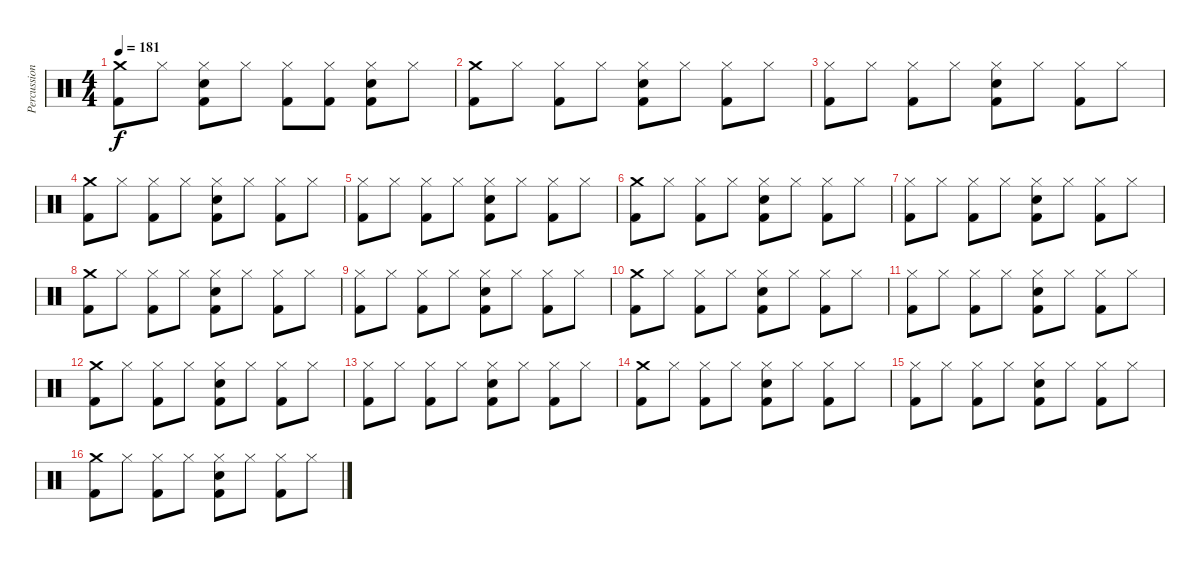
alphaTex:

\track ("Percussion" "Percussion") {instrument percussion}
\staff {score}
\articulation defaults
\ts (4 4)
\tempo 181
\clef neutral
\ks c
("Crash medium (hit)" "Kick (hit) 2").8{dy f} "Hi-Hat (closed)".8 ("Hi-Hat (closed)" "Electric Snare (hit)" "Kick (hit) 2").8 "Hi-Hat (closed)".8 ("Hi-Hat (closed)" "Kick (hit) 2").8 ("Hi-Hat (closed)" "Kick (hit) 2").8 ("Hi-Hat (closed)" "Electric Snare (hit)" "Kick (hit) 2").8 "Hi-Hat (closed)".8 |
("Crash medium (hit)" "Kick (hit) 2").8 "Hi-Hat (closed)".8 ("Hi-Hat (closed)" "Kick (hit) 2").8 "Hi-Hat (closed)".8 ("Hi-Hat (closed)" "Electric Snare (hit)" "Kick (hit) 2").8 "Hi-Hat (closed)".8 ("Hi-Hat (closed)" "Kick (hit) 2").8 "Hi-Hat (closed)".8 |
("Hi-Hat (closed)" "Kick (hit) 2").8 "Hi-Hat (closed)".8 ("Hi-Hat (closed)" "Kick (hit) 2").8 "Hi-Hat (closed)".8 ("Hi-Hat (closed)" "Electric Snare (hit)" "Kick (hit) 2").8 "Hi-Hat (closed)".8 ("Hi-Hat (closed)" "Kick (hit) 2").8 "Hi-Hat (closed)".8 |
("Crash medium (hit)" "Kick (hit) 2").8 "Hi-Hat (closed)".8 ("Hi-Hat (closed)" "Kick (hit) 2").8 "Hi-Hat (closed)".8 ("Hi-Hat (closed)" "Electric Snare (hit)" "Kick (hit) 2").8 "Hi-Hat (closed)".8 ("Hi-Hat (closed)" "Kick (hit) 2").8 "Hi-Hat (closed)".8 |
("Hi-Hat (closed)" "Kick (hit) 2").8 "Hi-Hat (closed)".8 ("Hi-Hat (closed)" "Kick (hit) 2").8 "Hi-Hat (closed)".8 ("Hi-Hat (closed)" "Electric Snare (hit)" "Kick (hit) 2").8 "Hi-Hat (closed)".8 ("Hi-Hat (closed)" "Kick (hit) 2").8 "Hi-Hat (closed)".8 |
("Crash medium (hit)" "Kick (hit) 2").8 "Hi-Hat (closed)".8 ("Hi-Hat (closed)" "Kick (hit) 2").8 "Hi-Hat (closed)".8 ("Hi-Hat (closed)" "Electric Snare (hit)" "Kick (hit) 2").8 "Hi-Hat (closed)".8 ("Hi-Hat (closed)" "Kick (hit) 2").8 "Hi-Hat (closed)".8 |
("Hi-Hat (closed)" "Kick (hit) 2").8 "Hi-Hat (closed)".8 ("Hi-Hat (closed)" "Kick (hit) 2").8 "Hi-Hat (closed)".8 ("Hi-Hat (closed)" "Electric Snare (hit)" "Kick (hit) 2").8 "Hi-Hat (closed)".8 ("Hi-Hat (closed)" "Kick (hit) 2").8 "Hi-Hat (closed)".8 |
("Crash medium (hit)" "Kick (hit) 2").8 "Hi-Hat (closed)".8 ("Hi-Hat (closed)" "Kick (hit) 2").8 "Hi-Hat (closed)".8 ("Hi-Hat (closed)" "Electric Snare (hit)" "Kick (hit) 2").8 "Hi-Hat (closed)".8 ("Hi-Hat (closed)" "Kick (hit) 2").8 "Hi-Hat (closed)".8 |
("Hi-Hat (closed)" "Kick (hit) 2").8 "Hi-Hat (closed)".8 ("Hi-Hat (closed)" "Kick (hit) 2").8 "Hi-Hat (closed)".8 ("Hi-Hat (closed)" "Electric Snare (hit)" "Kick (hit) 2").8 "Hi-Hat (closed)".8 ("Hi-Hat (closed)" "Kick (hit) 2").8 "Hi-Hat (closed)".8 |
("Crash medium (hit)" "Kick (hit) 2").8 "Hi-Hat (closed)".8 ("Hi-Hat (closed)" "Kick (hit) 2").8 "Hi-Hat (closed)".8 ("Hi-Hat (closed)" "Electric Snare (hit)" "Kick (hit) 2").8 "Hi-Hat (closed)".8 ("Hi-Hat (closed)" "Kick (hit) 2").8 "Hi-Hat (closed)".8 |
("Hi-Hat (closed)" "Kick (hit) 2").8 "Hi-Hat (closed)".8 ("Hi-Hat (closed)" "Kick (hit) 2").8 "Hi-Hat (closed)".8 ("Hi-Hat (closed)" "Electric Snare (hit)" "Kick (hit) 2").8 "Hi-Hat (closed)".8 ("Hi-Hat (closed)" "Kick (hit) 2").8 "Hi-Hat (closed)".8 |
("Crash medium (hit)" "Kick (hit) 2").8 "Hi-Hat (closed)".8 ("Hi-Hat (closed)" "Kick (hit) 2").8 "Hi-Hat (closed)".8 ("Hi-Hat (closed)" "Electric Snare (hit)" "Kick (hit) 2").8 "Hi-Hat (closed)".8 ("Hi-Hat (closed)" "Kick (hit) 2").8 "Hi-Hat (closed)".8 |
("Hi-Hat (closed)" "Kick (hit) 2").8 "Hi-Hat (closed)".8 ("Hi-Hat (closed)" "Kick (hit) 2").8 "Hi-Hat (closed)".8 ("Hi-Hat (closed)" "Electric Snare (hit)" "Kick (hit) 2").8 "Hi-Hat (closed)".8 ("Hi-Hat (closed)" "Kick (hit) 2").8 "Hi-Hat (closed)".8 |
("Crash medium (hit)" "Kick (hit) 2").8 "Hi-Hat (closed)".8 ("Hi-Hat (closed)" "Kick (hit) 2").8 "Hi-Hat (closed)".8 ("Hi-Hat (closed)" "Electric Snare (hit)" "Kick (hit) 2").8 "Hi-Hat (closed)".8 ("Hi-Hat (closed)" "Kick (hit) 2").8 "Hi-Hat (closed)".8 |
("Hi-Hat (closed)" "Kick (hit) 2").8 "Hi-Hat (closed)".8 ("Hi-Hat (closed)" "Kick (hit) 2").8 "Hi-Hat (closed)".8 ("Hi-Hat (closed)" "Electric Snare (hit)" "Kick (hit) 2").8 "Hi-Hat (closed)".8 ("Hi-Hat (closed)" "Kick (hit) 2").8 "Hi-Hat (closed)".8 |
("Crash medium (hit)" "Kick (hit) 2").8 "Hi-Hat (closed)".8 ("Hi-Hat (closed)" "Kick (hit) 2").8 "Hi-Hat (closed)".8 ("Hi-Hat (closed)" "Electric Snare (hit)" "Kick (hit) 2").8 "Hi-Hat (closed)".8 ("Hi-Hat (closed)" "Kick (hit) 2").8 "Hi-Hat (closed)".8
